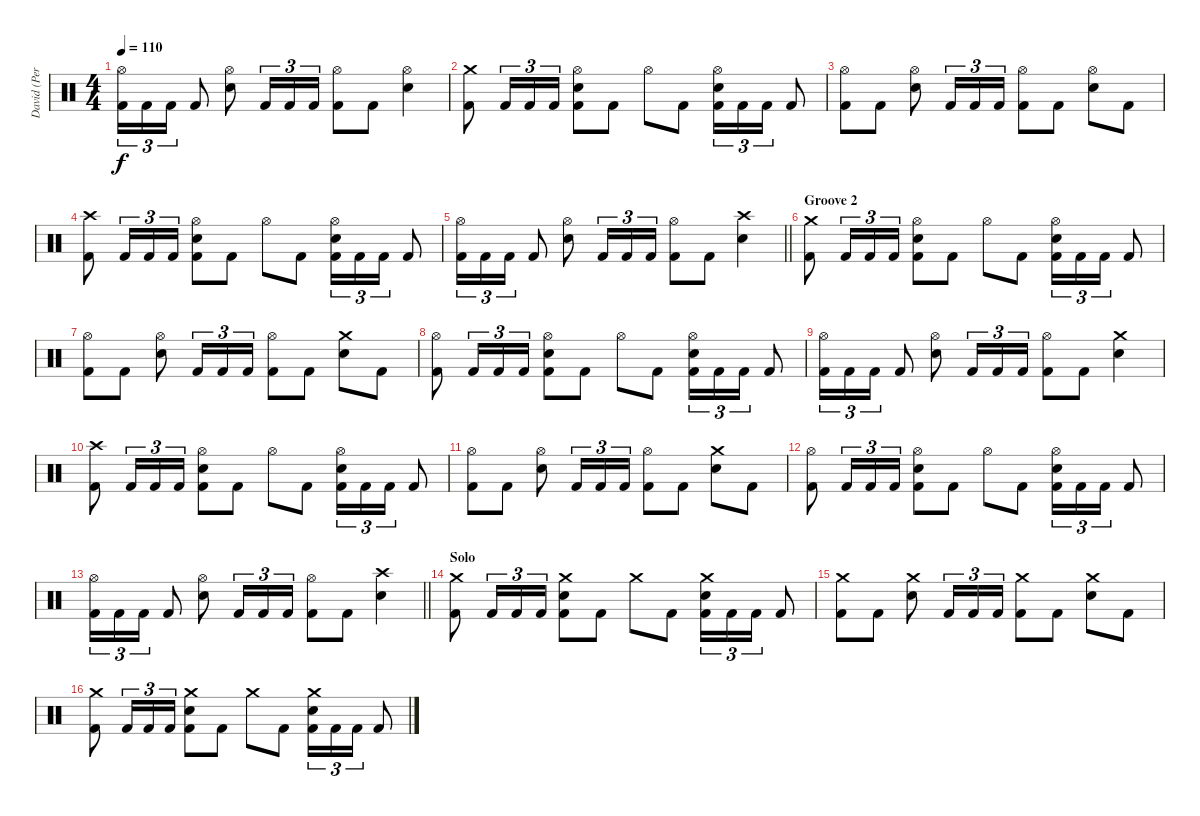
\track ("David (Percussion)" "David (Per") {instrument percussion}
\staff {score}
\articulation defaults
\ts (4 4)
\tempo 110
\clef neutral
\ks c
("Hi-Hat (open)" "Kick (hit) 2").16{tu (3 2) dy f} "Kick (hit) 2".16{tu (3 2)} "Kick (hit) 2".16{tu (3 2)} "Kick (hit) 2".8 ("Hi-Hat (open)" "Electric Snare (hit)").8 "Kick (hit) 2".16{tu (3 2)} "Kick (hit) 2".16{tu (3 2)} "Kick (hit) 2".16{tu (3 2)} ("Hi-Hat (open)" "Kick (hit) 2").8 "Kick (hit) 2".8 ("Hi-Hat (open)" "Electric Snare (hit)").4 |
("Crash medium (hit)" "Kick (hit) 2").8 "Kick (hit) 2".16{tu (3 2)} "Kick (hit) 2".16{tu (3 2)} "Kick (hit) 2".16{tu (3 2)} ("Hi-Hat (open)" "Electric Snare (hit)" "Kick (hit) 2").8 "Kick (hit) 2".8 "Hi-Hat (open)".8 "Kick (hit) 2".8 ("Hi-Hat (open)" "Electric Snare (hit)" "Kick (hit) 2").16{tu (3 2)} "Kick (hit) 2".16{tu (3 2)} "Kick (hit) 2".16{tu (3 2)} "Kick (hit) 2".8 |
("Hi-Hat (open)" "Kick (hit) 2").8 "Kick (hit) 2".8 ("Hi-Hat (open)" "Electric Snare (hit)").8 "Kick (hit) 2".16{tu (3 2)} "Kick (hit) 2".16{tu (3 2)} "Kick (hit) 2".16{tu (3 2)} ("Hi-Hat (open)" "Kick (hit) 2").8 "Kick (hit) 2".8 ("Hi-Hat (open)" "Electric Snare (hit)").8 "Kick (hit) 2".8 |
("Crash high (hit)" "Kick (hit) 2").8 "Kick (hit) 2".16{tu (3 2)} "Kick (hit) 2".16{tu (3 2)} "Kick (hit) 2".16{tu (3 2)} ("Hi-Hat (open)" "Electric Snare (hit)" "Kick (hit) 2").8 "Kick (hit) 2".8 "Hi-Hat (open)".8 "Kick (hit) 2".8 ("Hi-Hat (open)" "Electric Snare (hit)" "Kick (hit) 2").16{tu (3 2)} "Kick (hit) 2".16{tu (3 2)} "Kick (hit) 2".16{tu (3 2)} "Kick (hit) 2".8 |
\barLineRight lightlight
("Hi-Hat (open)" "Kick (hit) 2").16{tu (3 2)} "Kick (hit) 2".16{tu (3 2)} "Kick (hit) 2".16{tu (3 2)} "Kick (hit) 2".8 ("Hi-Hat (open)" "Electric Snare (hit)").8 "Kick (hit) 2".16{tu (3 2)} "Kick (hit) 2".16{tu (3 2)} "Kick (hit) 2".16{tu (3 2)} ("Hi-Hat (open)" "Kick (hit) 2").8 "Kick (hit) 2".8 ("Crash high (hit)" "Electric Snare (hit)").4 |
\section ("" "Groove 2")
("Crash medium (hit)" "Kick (hit) 2").8 "Kick (hit) 2".16{tu (3 2)} "Kick (hit) 2".16{tu (3 2)} "Kick (hit) 2".16{tu (3 2)} ("Hi-Hat (open)" "Electric Snare (hit)" "Kick (hit) 2").8 "Kick (hit) 2".8 "Hi-Hat (open)".8 "Kick (hit) 2".8 ("Hi-Hat (open)" "Electric Snare (hit)" "Kick (hit) 2").16{tu (3 2)} "Kick (hit) 2".16{tu (3 2)} "Kick (hit) 2".16{tu (3 2)} "Kick (hit) 2".8 |
("Hi-Hat (open)" "Kick (hit) 2").8 "Kick (hit) 2".8 ("Hi-Hat (open)" "Electric Snare (hit)").8 "Kick (hit) 2".16{tu (3 2)} "Kick (hit) 2".16{tu (3 2)} "Kick (hit) 2".16{tu (3 2)} ("Hi-Hat (open)" "Kick (hit) 2").8 "Kick (hit) 2".8 ("Crash medium (hit)" "Electric Snare (hit)").8 "Kick (hit) 2".8 |
("Hi-Hat (open)" "Kick (hit) 2").8 "Kick (hit) 2".16{tu (3 2)} "Kick (hit) 2".16{tu (3 2)} "Kick (hit) 2".16{tu (3 2)} ("Hi-Hat (open)" "Electric Snare (hit)" "Kick (hit) 2").8 "Kick (hit) 2".8 "Hi-Hat (open)".8 "Kick (hit) 2".8 ("Hi-Hat (open)" "Electric Snare (hit)" "Kick (hit) 2").16{tu (3 2)} "Kick (hit) 2".16{tu (3 2)} "Kick (hit) 2".16{tu (3 2)} "Kick (hit) 2".8 |
("Hi-Hat (open)" "Kick (hit) 2").16{tu (3 2)} "Kick (hit) 2".16{tu (3 2)} "Kick (hit) 2".16{tu (3 2)} "Kick (hit) 2".8 ("Hi-Hat (open)" "Electric Snare (hit)").8 "Kick (hit) 2".16{tu (3 2)} "Kick (hit) 2".16{tu (3 2)} "Kick (hit) 2".16{tu (3 2)} ("Hi-Hat (open)" "Kick (hit) 2").8 "Kick (hit) 2".8 ("Crash medium (hit)" "Electric Snare (hit)").4 |
("Crash high (hit)" "Kick (hit) 2").8 "Kick (hit) 2".16{tu (3 2)} "Kick (hit) 2".16{tu (3 2)} "Kick (hit) 2".16{tu (3 2)} ("Hi-Hat (open)" "Electric Snare (hit)" "Kick (hit) 2").8 "Kick (hit) 2".8 "Hi-Hat (open)".8 "Kick (hit) 2".8 ("Hi-Hat (open)" "Electric Snare (hit)" "Kick (hit) 2").16{tu (3 2)} "Kick (hit) 2".16{tu (3 2)} "Kick (hit) 2".16{tu (3 2)} "Kick (hit) 2".8 |
("Hi-Hat (open)" "Kick (hit) 2").8 "Kick (hit) 2".8 ("Hi-Hat (open)" "Electric Snare (hit)").8 "Kick (hit) 2".16{tu (3 2)} "Kick (hit) 2".16{tu (3 2)} "Kick (hit) 2".16{tu (3 2)} ("Hi-Hat (open)" "Kick (hit) 2").8 "Kick (hit) 2".8 ("Crash medium (hit)" "Electric Snare (hit)").8 "Kick (hit) 2".8 |
("Hi-Hat (open)" "Kick (hit) 2").8 "Kick (hit) 2".16{tu (3 2)} "Kick (hit) 2".16{tu (3 2)} "Kick (hit) 2".16{tu (3 2)} ("Hi-Hat (open)" "Electric Snare (hit)" "Kick (hit) 2").8 "Kick (hit) 2".8 "Hi-Hat (open)".8 "Kick (hit) 2".8 ("Hi-Hat (open)" "Electric Snare (hit)" "Kick (hit) 2").16{tu (3 2)} "Kick (hit) 2".16{tu (3 2)} "Kick (hit) 2".16{tu (3 2)} "Kick (hit) 2".8 |
\barLineRight lightlight
("Hi-Hat (open)" "Kick (hit) 2").16{tu (3 2)} "Kick (hit) 2".16{tu (3 2)} "Kick (hit) 2".16{tu (3 2)} "Kick (hit) 2".8 ("Hi-Hat (open)" "Electric Snare (hit)").8 "Kick (hit) 2".16{tu (3 2)} "Kick (hit) 2".16{tu (3 2)} "Kick (hit) 2".16{tu (3 2)} ("Hi-Hat (open)" "Kick (hit) 2").8 "Kick (hit) 2".8 ("Crash high (hit)" "Electric Snare (hit)").4 |
\section ("" "Solo")
("Crash medium (hit)" "Kick (hit) 2").8 "Kick (hit) 2".16{tu (3 2)} "Kick (hit) 2".16{tu (3 2)} "Kick (hit) 2".16{tu (3 2)} ("Crash medium (hit)" "Electric Snare (hit)" "Kick (hit) 2").8 "Kick (hit) 2".8 "Crash medium (hit)".8 "Kick (hit) 2".8 ("Crash medium (hit)" "Electric Snare (hit)" "Kick (hit) 2").16{tu (3 2)} "Kick (hit) 2".16{tu (3 2)} "Kick (hit) 2".16{tu (3 2)} "Kick (hit) 2".8 |
("Crash medium (hit)" "Kick (hit) 2").8 "Kick (hit) 2".8 ("Crash medium (hit)" "Electric Snare (hit)").8 "Kick (hit) 2".16{tu (3 2)} "Kick (hit) 2".16{tu (3 2)} "Kick (hit) 2".16{tu (3 2)} ("Crash medium (hit)" "Kick (hit) 2").8 "Kick (hit) 2".8 ("Crash medium (hit)" "Electric Snare (hit)").8 "Kick (hit) 2".8 |
("Crash medium (hit)" "Kick (hit) 2").8 "Kick (hit) 2".16{tu (3 2)} "Kick (hit) 2".16{tu (3 2)} "Kick (hit) 2".16{tu (3 2)} ("Crash medium (hit)" "Electric Snare (hit)" "Kick (hit) 2").8 "Kick (hit) 2".8 "Crash medium (hit)".8 "Kick (hit) 2".8 ("Crash medium (hit)" "Electric Snare (hit)" "Kick (hit) 2").16{tu (3 2)} "Kick (hit) 2".16{tu (3 2)} "Kick (hit) 2".16{tu (3 2)} "Kick (hit) 2".8
